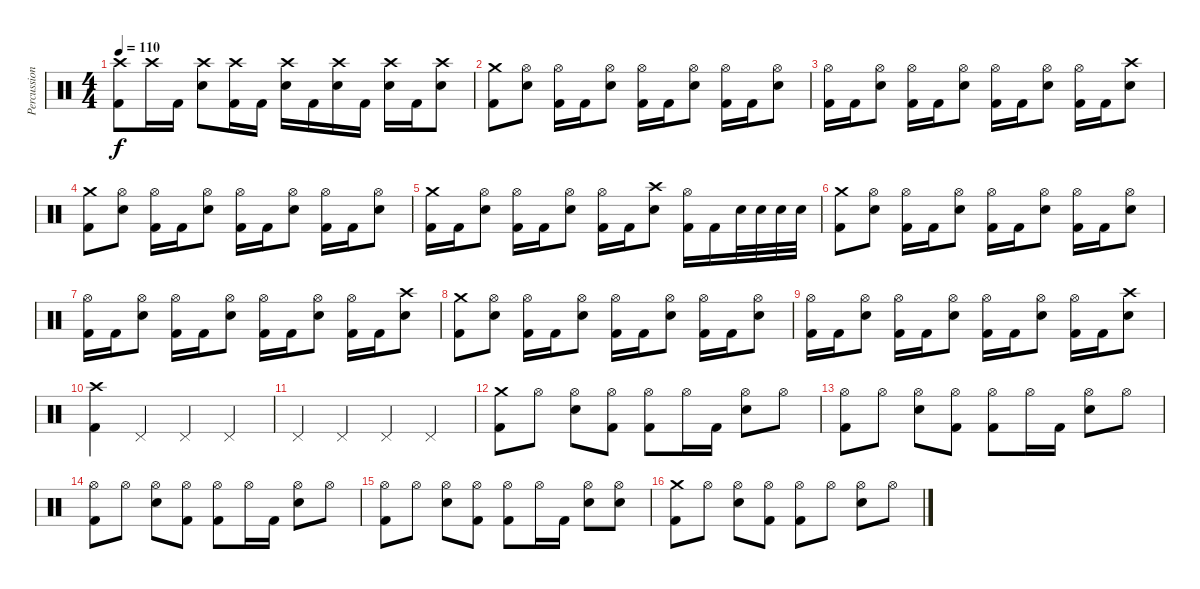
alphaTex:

\track ("Percussion" "Percussion") {instrument percussion}
\staff {score}
\articulation defaults
\ts (4 4)
\tempo 110
\clef neutral
\ks c
("Crash high (hit)" "Kick (hit) 2").8{dy f} "Crash high (hit)".16 "Kick (hit) 2".16 ("Crash high (hit)" "Snare (hit) 2").8 ("Crash high (hit)" "Kick (hit) 2").16 "Kick (hit) 2".16 ("Crash high (hit)" "Snare (hit) 2").16 "Kick (hit) 2".16 ("Crash high (hit)" "Snare (hit) 2").16 "Kick (hit) 2".16 ("Crash high (hit)" "Snare (hit) 2").16 "Kick (hit) 2".16 ("Crash high (hit)" "Snare (hit) 2").8 |
("Crash medium (hit)" "Kick (hit) 2").8 ("Hi-Hat (open)" "Snare (hit) 2").8 ("Hi-Hat (open)" "Kick (hit) 2").16 "Kick (hit) 2".16 ("Hi-Hat (open)" "Snare (hit) 2").8 ("Hi-Hat (open)" "Kick (hit) 2").16 "Kick (hit) 2".16 ("Hi-Hat (open)" "Snare (hit) 2").8 ("Hi-Hat (open)" "Kick (hit) 2").16 "Kick (hit) 2".16 ("Hi-Hat (open)" "Snare (hit) 2").8 |
("Hi-Hat (open)" "Kick (hit) 2").16 "Kick (hit) 2".16 ("Hi-Hat (open)" "Snare (hit) 2").8 ("Hi-Hat (open)" "Kick (hit) 2").16 "Kick (hit) 2".16 ("Hi-Hat (open)" "Snare (hit) 2").8 ("Hi-Hat (open)" "Kick (hit) 2").16 "Kick (hit) 2".16 ("Hi-Hat (open)" "Snare (hit) 2").8 ("Hi-Hat (open)" "Kick (hit) 2").16 "Kick (hit) 2".16 ("Crash high (hit)" "Snare (hit) 2").8 |
("Crash medium (hit)" "Kick (hit) 2").8 ("Hi-Hat (open)" "Snare (hit) 2").8 ("Hi-Hat (open)" "Kick (hit) 2").16 "Kick (hit) 2".16 ("Hi-Hat (open)" "Snare (hit) 2").8 ("Hi-Hat (open)" "Kick (hit) 2").16 "Kick (hit) 2".16 ("Hi-Hat (open)" "Snare (hit) 2").8 ("Hi-Hat (open)" "Kick (hit) 2").16 "Kick (hit) 2".16 ("Hi-Hat (open)" "Snare (hit) 2").8 |
("Crash medium (hit)" "Kick (hit) 2").16 "Kick (hit) 2".16 ("Hi-Hat (open)" "Snare (hit) 2").8 ("Hi-Hat (open)" "Kick (hit) 2").16 "Kick (hit) 2".16 ("Hi-Hat (open)" "Snare (hit) 2").8 ("Hi-Hat (open)" "Kick (hit) 2").16 "Kick (hit) 2".16 ("Crash high (hit)" "Snare (hit) 2").8 ("Hi-Hat (open)" "Kick (hit) 2").16 "Kick (hit) 2".16 "Snare (hit) 2".32 "Snare (hit) 2".32 "Snare (hit) 2".32 "Snare (hit) 2".32 |
("Crash medium (hit)" "Kick (hit) 2").8 ("Hi-Hat (open)" "Snare (hit) 2").8 ("Hi-Hat (open)" "Kick (hit) 2").16 "Kick (hit) 2".16 ("Hi-Hat (open)" "Snare (hit) 2").8 ("Hi-Hat (open)" "Kick (hit) 2").16 "Kick (hit) 2".16 ("Hi-Hat (open)" "Snare (hit) 2").8 ("Hi-Hat (open)" "Kick (hit) 2").16 "Kick (hit) 2".16 ("Hi-Hat (open)" "Snare (hit) 2").8 |
("Hi-Hat (open)" "Kick (hit) 2").16 "Kick (hit) 2".16 ("Hi-Hat (open)" "Snare (hit) 2").8 ("Hi-Hat (open)" "Kick (hit) 2").16 "Kick (hit) 2".16 ("Hi-Hat (open)" "Snare (hit) 2").8 ("Hi-Hat (open)" "Kick (hit) 2").16 "Kick (hit) 2".16 ("Hi-Hat (open)" "Snare (hit) 2").8 ("Hi-Hat (open)" "Kick (hit) 2").16 "Kick (hit) 2".16 ("Crash high (hit)" "Snare (hit) 2").8 |
("Crash medium (hit)" "Kick (hit) 2").8 ("Hi-Hat (open)" "Snare (hit) 2").8 ("Hi-Hat (open)" "Kick (hit) 2").16 "Kick (hit) 2".16 ("Hi-Hat (open)" "Snare (hit) 2").8 ("Hi-Hat (open)" "Kick (hit) 2").16 "Kick (hit) 2".16 ("Hi-Hat (open)" "Snare (hit) 2").8 ("Hi-Hat (open)" "Kick (hit) 2").16 "Kick (hit) 2".16 ("Hi-Hat (open)" "Snare (hit) 2").8 |
("Hi-Hat (open)" "Kick (hit) 2").16 "Kick (hit) 2".16 ("Hi-Hat (open)" "Snare (hit) 2").8 ("Hi-Hat (open)" "Kick (hit) 2").16 "Kick (hit) 2".16 ("Hi-Hat (open)" "Snare (hit) 2").8 ("Hi-Hat (open)" "Kick (hit) 2").16 "Kick (hit) 2".16 ("Hi-Hat (open)" "Snare (hit) 2").8 ("Hi-Hat (open)" "Kick (hit) 2").16 "Kick (hit) 2".16 ("Crash high (hit)" "Snare (hit) 2").8 |
("Crash high (hit)" "Kick (hit) 2").4 "Pedal Hi-Hat (hit)".4 "Pedal Hi-Hat (hit)".4 "Pedal Hi-Hat (hit)".4 |
"Pedal Hi-Hat (hit)".4 "Pedal Hi-Hat (hit)".4 "Pedal Hi-Hat (hit)".4 "Pedal Hi-Hat (hit)".4 |
("Crash medium (hit)" "Kick (hit) 2").8 "Hi-Hat (open)".8 ("Hi-Hat (open)" "Snare (hit) 2").8 ("Hi-Hat (open)" "Kick (hit) 2").8 ("Hi-Hat (open)" "Kick (hit) 2").8 "Hi-Hat (open)".16 "Kick (hit) 2".16 ("Hi-Hat (open)" "Snare (hit) 2").8 "Hi-Hat (open)".8 |
("Hi-Hat (open)" "Kick (hit) 2").8 "Hi-Hat (open)".8 ("Hi-Hat (open)" "Snare (hit) 2").8 ("Hi-Hat (open)" "Kick (hit) 2").8 ("Hi-Hat (open)" "Kick (hit) 2").8 "Hi-Hat (open)".16 "Kick (hit) 2".16 ("Hi-Hat (open)" "Snare (hit) 2").8 "Hi-Hat (open)".8 |
("Hi-Hat (open)" "Kick (hit) 2").8 "Hi-Hat (open)".8 ("Hi-Hat (open)" "Snare (hit) 2").8 ("Hi-Hat (open)" "Kick (hit) 2").8 ("Hi-Hat (open)" "Kick (hit) 2").8 "Hi-Hat (open)".16 "Kick (hit) 2".16 ("Hi-Hat (open)" "Snare (hit) 2").8 "Hi-Hat (open)".8 |
("Hi-Hat (open)" "Kick (hit) 2").8 "Hi-Hat (open)".8 ("Hi-Hat (open)" "Snare (hit) 2").8 ("Hi-Hat (open)" "Kick (hit) 2").8 ("Hi-Hat (open)" "Kick (hit) 2").8 "Hi-Hat (open)".16 "Kick (hit) 2".16 ("Hi-Hat (open)" "Snare (hit) 2").8 ("Hi-Hat (open)" "Snare (hit) 2").8 |
("Crash medium (hit)" "Kick (hit) 2").8 "Hi-Hat (open)".8 ("Hi-Hat (open)" "Snare (hit) 2").8 ("Hi-Hat (open)" "Kick (hit) 2").8 ("Hi-Hat (open)" "Kick (hit) 2").8 "Hi-Hat (open)".8 ("Hi-Hat (open)" "Snare (hit) 2").8 "Hi-Hat (open)".8
